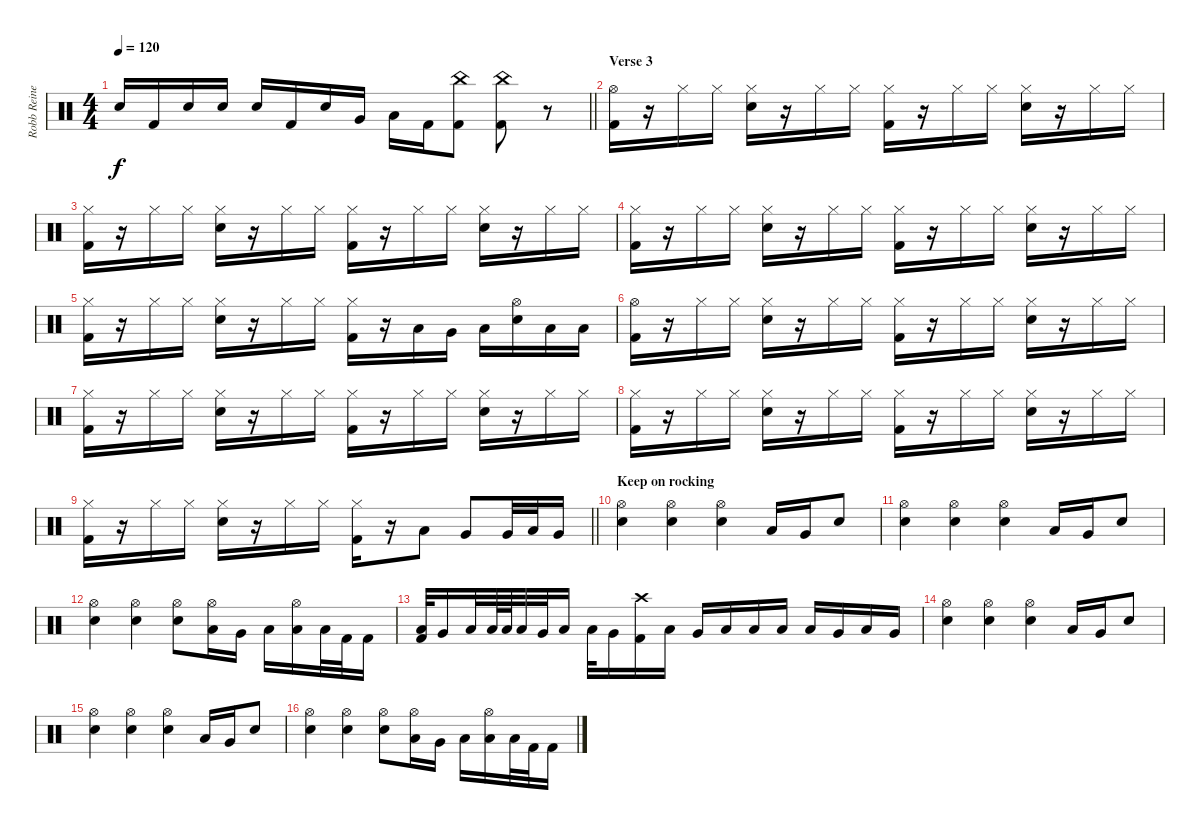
\track ("Robb Reiner" "Robb Reine") {instrument percussion}
\staff {score}
\articulation defaults
\ts (4 4)
\tempo 120
\clef neutral
\barLineRight lightlight
\ks c "Snare (hit) 2".16{dy f} "Kick (hit) 2".16 "Snare (hit) 2".16 "Snare (hit) 2".16 "Snare (hit) 2".16 "Kick (hit) 2".16 "Snare (hit) 2".16 "Very Low Tom (hit)".16 "Low Floor Tom (hit)".16 "Kick (hit) 2".16
("Kick (hit) 2" "China (hit)").8 ("Kick (hit) 2" "China (hit)").8 r.8 |
\section ("" "Verse 3")
("Hi-Hat (open)" "Kick (hit) 2").16 r.16 "Hi-Hat (closed)".16 "Hi-Hat (closed)".16 ("Hi-Hat (closed)" "Snare (hit) 2").16 r.16 "Hi-Hat (closed)".16 "Hi-Hat (closed)".16 ("Hi-Hat (closed)" "Kick (hit) 2").16 r.16 "Hi-Hat (closed)".16 "Hi-Hat (closed)".16 ("Hi-Hat (closed)" "Snare (hit) 2").16 r.16 "Hi-Hat (closed)".16 "Hi-Hat (closed)".16 |
("Hi-Hat (closed)" "Kick (hit) 2").16 r.16 "Hi-Hat (closed)".16 "Hi-Hat (closed)".16 ("Hi-Hat (closed)" "Snare (hit) 2").16 r.16 "Hi-Hat (closed)".16 "Hi-Hat (closed)".16 ("Hi-Hat (closed)" "Kick (hit) 2").16 r.16 "Hi-Hat (closed)".16 "Hi-Hat (closed)".16 ("Hi-Hat (closed)" "Snare (hit) 2").16 r.16 "Hi-Hat (closed)".16 "Hi-Hat (closed)".16 |
("Hi-Hat (closed)" "Kick (hit) 2").16 r.16 "Hi-Hat (closed)".16 "Hi-Hat (closed)".16 ("Hi-Hat (closed)" "Snare (hit) 2").16 r.16 "Hi-Hat (closed)".16 "Hi-Hat (closed)".16 ("Hi-Hat (closed)" "Kick (hit) 2").16 r.16 "Hi-Hat (closed)".16 "Hi-Hat (closed)".16 ("Hi-Hat (closed)" "Snare (hit) 2").16 r.16 "Hi-Hat (closed)".16 "Hi-Hat (closed)".16 |
("Hi-Hat (closed)" "Kick (hit) 2").16 r.16 "Hi-Hat (closed)".16 "Hi-Hat (closed)".16 ("Hi-Hat (closed)" "Snare (hit) 2").16 r.16 "Hi-Hat (closed)".16 "Hi-Hat (closed)".16 ("Hi-Hat (closed)" "Kick (hit) 2").16 r.16 "Low Tom (hit)".16 "Very Low Tom (hit)".16 "Low Floor Tom (hit)".16 ("Snare (hit) 2" "Hi-Hat (open)").16 "Low Tom (hit)".16 "Low Tom (hit)".16 |
("Hi-Hat (open)" "Kick (hit) 2").16 r.16 "Hi-Hat (closed)".16 "Hi-Hat (closed)".16 ("Hi-Hat (closed)" "Snare (hit) 2").16 r.16 "Hi-Hat (closed)".16 "Hi-Hat (closed)".16 ("Hi-Hat (closed)" "Kick (hit) 2").16 r.16 "Hi-Hat (closed)".16 "Hi-Hat (closed)".16 ("Hi-Hat (closed)" "Snare (hit) 2").16 r.16 "Hi-Hat (closed)".16 "Hi-Hat (closed)".16 |
("Hi-Hat (closed)" "Kick (hit) 2").16 r.16 "Hi-Hat (closed)".16 "Hi-Hat (closed)".16 ("Hi-Hat (closed)" "Snare (hit) 2").16 r.16 "Hi-Hat (closed)".16 "Hi-Hat (closed)".16 ("Hi-Hat (closed)" "Kick (hit) 2").16 r.16 "Hi-Hat (closed)".16 "Hi-Hat (closed)".16 ("Hi-Hat (closed)" "Snare (hit) 2").16 r.16 "Hi-Hat (closed)".16 "Hi-Hat (closed)".16 |
("Hi-Hat (closed)" "Kick (hit) 2").16 r.16 "Hi-Hat (closed)".16 "Hi-Hat (closed)".16 ("Hi-Hat (closed)" "Snare (hit) 2").16 r.16 "Hi-Hat (closed)".16 "Hi-Hat (closed)".16 ("Hi-Hat (closed)" "Kick (hit) 2").16 r.16 "Hi-Hat (closed)".16 "Hi-Hat (closed)".16 ("Hi-Hat (closed)" "Snare (hit) 2").16 r.16 "Hi-Hat (closed)".16 "Hi-Hat (closed)".16 |
\barLineRight lightlight
("Hi-Hat (closed)" "Kick (hit) 2").16 r.16 "Hi-Hat (closed)".16 "Hi-Hat (closed)".16 ("Hi-Hat (closed)" "Snare (hit) 2").16 r.16 "Hi-Hat (closed)".16 "Hi-Hat (closed)".16 ("Hi-Hat (closed)" "Kick (hit) 2").16 r.16 "Low Tom (hit)".8 "Very Low Tom (hit)".8 "Very Low Tom (hit)".32 "Low Floor Tom (hit)".32 "Very Low Tom (hit)".16 |
\section ("" "Keep on rocking")
("Snare (hit) 2" "Hi-Hat (open)").4 ("Snare (hit) 2" "Hi-Hat (open)").4 ("Snare (hit) 2" "Hi-Hat (open)").4 "Low Tom (hit)".16 "Very Low Tom (hit)".16 "Snare (hit) 2".8 |
("Snare (hit) 2" "Hi-Hat (open)").4 ("Snare (hit) 2" "Hi-Hat (open)").4 ("Snare (hit) 2" "Hi-Hat (open)").4 "Low Tom (hit)".16 "Very Low Tom (hit)".16 "Snare (hit) 2".8 |
("Snare (hit) 2" "Hi-Hat (open)").4 ("Snare (hit) 2" "Hi-Hat (open)").4 ("Snare (hit) 2" "Hi-Hat (open)").8 ("Low Tom (hit)" "Hi-Hat (open)").16 "Very Low Tom (hit)".16 "Low Tom (hit)".16 ("Low Floor Tom (hit)" "Hi-Hat (open)").16 "Low Tom (hit)".32 "Kick (hit) 2".32 "Kick (hit) 2".16 |
("Low Tom (hit)" "Kick (hit) 2").32 "Very Low Tom (hit)".16 "Low Tom (hit)".32 "Low Tom (hit)".64 "Low Tom (hit)".64 "Low Tom (hit)".32 "Very Low Tom (hit)".32 "Low Tom (hit)".16 "Low Tom (hit)".32 "Very Low Tom (hit)".16 ("Crash high (hit)" "Kick (hit) 2").16 "Low Tom (hit)".16 "Very Low Tom (hit)".16 "Low Tom (hit)".16 "Low Tom (hit)".16 "Low Tom (hit)".16 "Low Tom (hit)".16 "Very Low Tom (hit)".16 "Low Tom (hit)".16 "Very Low Tom (hit)".16 |
("Snare (hit) 2" "Hi-Hat (open)").4 ("Snare (hit) 2" "Hi-Hat (open)").4 ("Snare (hit) 2" "Hi-Hat (open)").4 "Low Tom (hit)".16 "Very Low Tom (hit)".16 "Snare (hit) 2".8 |
("Snare (hit) 2" "Hi-Hat (open)").4 ("Snare (hit) 2" "Hi-Hat (open)").4 ("Snare (hit) 2" "Hi-Hat (open)").4 "Low Tom (hit)".16 "Very Low Tom (hit)".16 "Snare (hit) 2".8 |
("Snare (hit) 2" "Hi-Hat (open)").4 ("Snare (hit) 2" "Hi-Hat (open)").4 ("Snare (hit) 2" "Hi-Hat (open)").8 ("Low Tom (hit)" "Hi-Hat (open)").16 "Very Low Tom (hit)".16 "Low Tom (hit)".16 ("Low Floor Tom (hit)" "Hi-Hat (open)").16 "Low Tom (hit)".32 "Kick (hit) 2".32 "Kick (hit) 2".16
